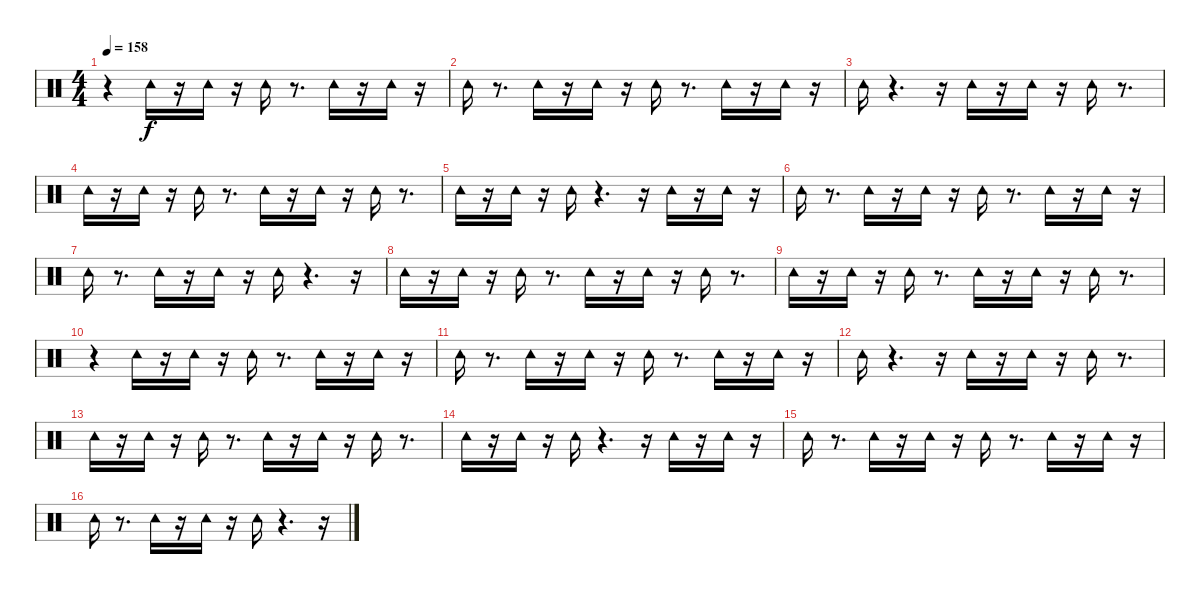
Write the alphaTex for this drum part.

\track "" {instrument percussion}
\staff {score}
\articulation defaults
\ts (4 4)
\tempo 158
\clef neutral
\ks c
r.4{dy f} "Tambourine (hit)".16 r.16 "Tambourine (hit)".16 r.16 "Tambourine (hit)".16 r.8{d} "Tambourine (hit)".16 r.16 "Tambourine (hit)".16 r.16 |
"Tambourine (hit)".16 r.8{d} "Tambourine (hit)".16 r.16 "Tambourine (hit)".16 r.16 "Tambourine (hit)".16 r.8{d} "Tambourine (hit)".16 r.16 "Tambourine (hit)".16 r.16 |
"Tambourine (hit)".16 r.4{d} r.16 "Tambourine (hit)".16 r.16 "Tambourine (hit)".16 r.16 "Tambourine (hit)".16 r.8{d} |
"Tambourine (hit)".16 r.16 "Tambourine (hit)".16 r.16 "Tambourine (hit)".16 r.8{d} "Tambourine (hit)".16 r.16 "Tambourine (hit)".16 r.16 "Tambourine (hit)".16 r.8{d} |
"Tambourine (hit)".16 r.16 "Tambourine (hit)".16 r.16 "Tambourine (hit)".16 r.4{d} r.16 "Tambourine (hit)".16 r.16 "Tambourine (hit)".16 r.16 |
"Tambourine (hit)".16 r.8{d} "Tambourine (hit)".16 r.16 "Tambourine (hit)".16 r.16 "Tambourine (hit)".16 r.8{d} "Tambourine (hit)".16 r.16 "Tambourine (hit)".16 r.16 |
"Tambourine (hit)".16 r.8{d} "Tambourine (hit)".16 r.16 "Tambourine (hit)".16 r.16 "Tambourine (hit)".16 r.4{d} r.16 |
"Tambourine (hit)".16 r.16 "Tambourine (hit)".16 r.16 "Tambourine (hit)".16 r.8{d} "Tambourine (hit)".16 r.16 "Tambourine (hit)".16 r.16 "Tambourine (hit)".16 r.8{d} |
"Tambourine (hit)".16 r.16 "Tambourine (hit)".16 r.16 "Tambourine (hit)".16 r.8{d} "Tambourine (hit)".16 r.16 "Tambourine (hit)".16 r.16 "Tambourine (hit)".16 r.8{d} |
r.4 "Tambourine (hit)".16 r.16 "Tambourine (hit)".16 r.16 "Tambourine (hit)".16 r.8{d} "Tambourine (hit)".16 r.16 "Tambourine (hit)".16 r.16 |
"Tambourine (hit)".16 r.8{d} "Tambourine (hit)".16 r.16 "Tambourine (hit)".16 r.16 "Tambourine (hit)".16 r.8{d} "Tambourine (hit)".16 r.16 "Tambourine (hit)".16 r.16 |
"Tambourine (hit)".16 r.4{d} r.16 "Tambourine (hit)".16 r.16 "Tambourine (hit)".16 r.16 "Tambourine (hit)".16 r.8{d} |
"Tambourine (hit)".16 r.16 "Tambourine (hit)".16 r.16 "Tambourine (hit)".16 r.8{d} "Tambourine (hit)".16 r.16 "Tambourine (hit)".16 r.16 "Tambourine (hit)".16 r.8{d} |
"Tambourine (hit)".16 r.16 "Tambourine (hit)".16 r.16 "Tambourine (hit)".16 r.4{d} r.16 "Tambourine (hit)".16 r.16 "Tambourine (hit)".16 r.16 |
"Tambourine (hit)".16 r.8{d} "Tambourine (hit)".16 r.16 "Tambourine (hit)".16 r.16 "Tambourine (hit)".16 r.8{d} "Tambourine (hit)".16 r.16 "Tambourine (hit)".16 r.16 |
"Tambourine (hit)".16 r.8{d} "Tambourine (hit)".16 r.16 "Tambourine (hit)".16 r.16 "Tambourine (hit)".16 r.4{d} r.16
